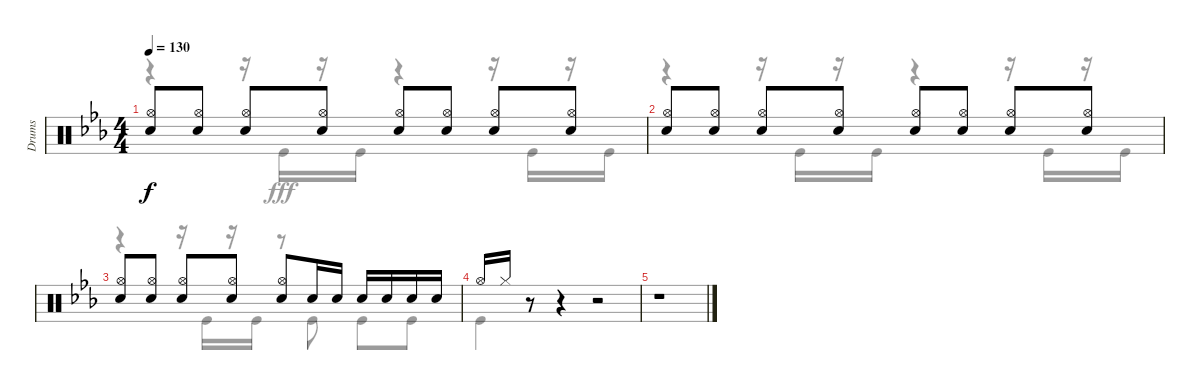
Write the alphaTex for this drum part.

\track ("Drums" "Drums") {instrument percussion}
\staff {score}
\articulation defaults
\voice
\ts (4 4)
\tempo 130
\clef neutral
\ks eb
("Hi-Hat (open)" "Snare (hit) 2").8{dy f} ("Hi-Hat (open)" "Snare (hit) 2").8 ("Hi-Hat (open)" "Snare (hit) 2").8 ("Hi-Hat (open)" "Snare (hit) 2").8 ("Hi-Hat (open)" "Snare (hit) 2").8 ("Hi-Hat (open)" "Snare (hit) 2").8 ("Hi-Hat (open)" "Snare (hit) 2").8 ("Hi-Hat (open)" "Snare (hit) 2").8 |
("Hi-Hat (open)" "Snare (hit) 2").8 ("Hi-Hat (open)" "Snare (hit) 2").8 ("Hi-Hat (open)" "Snare (hit) 2").8 ("Hi-Hat (open)" "Snare (hit) 2").8 ("Hi-Hat (open)" "Snare (hit) 2").8 ("Hi-Hat (open)" "Snare (hit) 2").8 ("Hi-Hat (open)" "Snare (hit) 2").8 ("Hi-Hat (open)" "Snare (hit) 2").8 |
("Hi-Hat (open)" "Snare (hit) 2").8 ("Hi-Hat (open)" "Snare (hit) 2").8 ("Hi-Hat (open)" "Snare (hit) 2").8 ("Hi-Hat (open)" "Snare (hit) 2").8 ("Hi-Hat (open)" "Snare (hit) 2").8 "Snare (hit) 2".16 "Snare (hit) 2".16 "Snare (hit) 2".16 "Snare (hit) 2".16 "Snare (hit) 2".16 "Snare (hit) 2".16 |
"Hi-Hat (open)".16 "Hi-Hat (closed)".16 r.8 r.4 r.2 |
r.1
\voice
\clef neutral
\ottava regular
\simile none
\ks eb
r.4{dy fff} r.16 "Kick (hit)".16 r.16 "Kick (hit)".16 r.4 r.16 "Kick (hit)".16 r.16 "Kick (hit)".16 |
r.4 r.16 "Kick (hit)".16 r.16 "Kick (hit)".16 r.4 r.16 "Kick (hit)".16 r.16 "Kick (hit)".16 |
r.4 r.16 "Kick (hit)".16 r.16 "Kick (hit)".16 r.8 "Kick (hit)".8 "Kick (hit)".8 "Kick (hit)".8 |
"Kick (hit)".4 r.4 r.2 |
r.1
